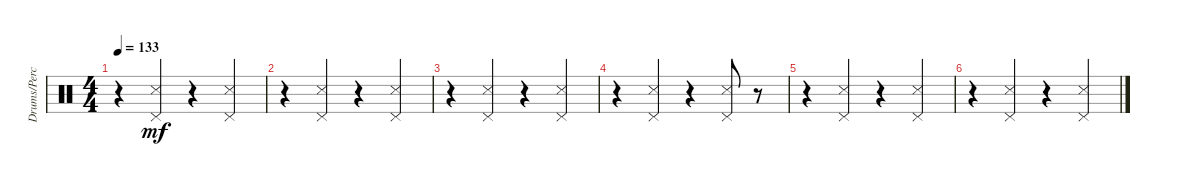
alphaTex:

\track ("Drums/Percussion" "Drums/Perc") {instrument percussion}
\staff {score}
\articulation defaults
\ts (4 4)
\tempo 133
\clef neutral
\ks c
r.4{dy mf} ("Pedal Hi-Hat (hit)" "Snare (side stick) 3").4 r.4 ("Pedal Hi-Hat (hit)" "Snare (side stick) 3").4 |
r.4 ("Pedal Hi-Hat (hit)" "Snare (side stick) 3").4 r.4 ("Pedal Hi-Hat (hit)" "Snare (side stick) 3").4 |
r.4 ("Pedal Hi-Hat (hit)" "Snare (side stick) 3").4 r.4 ("Pedal Hi-Hat (hit)" "Snare (side stick) 3").4 |
r.4 ("Pedal Hi-Hat (hit)" "Snare (side stick) 3").4 r.4 ("Pedal Hi-Hat (hit)" "Snare (side stick) 3").8 r.8 |
r.4 ("Pedal Hi-Hat (hit)" "Snare (side stick) 3").4 r.4 ("Pedal Hi-Hat (hit)" "Snare (side stick) 3").4 |
r.4 ("Pedal Hi-Hat (hit)" "Snare (side stick) 3").4 r.4 ("Pedal Hi-Hat (hit)" "Snare (side stick) 3").4
